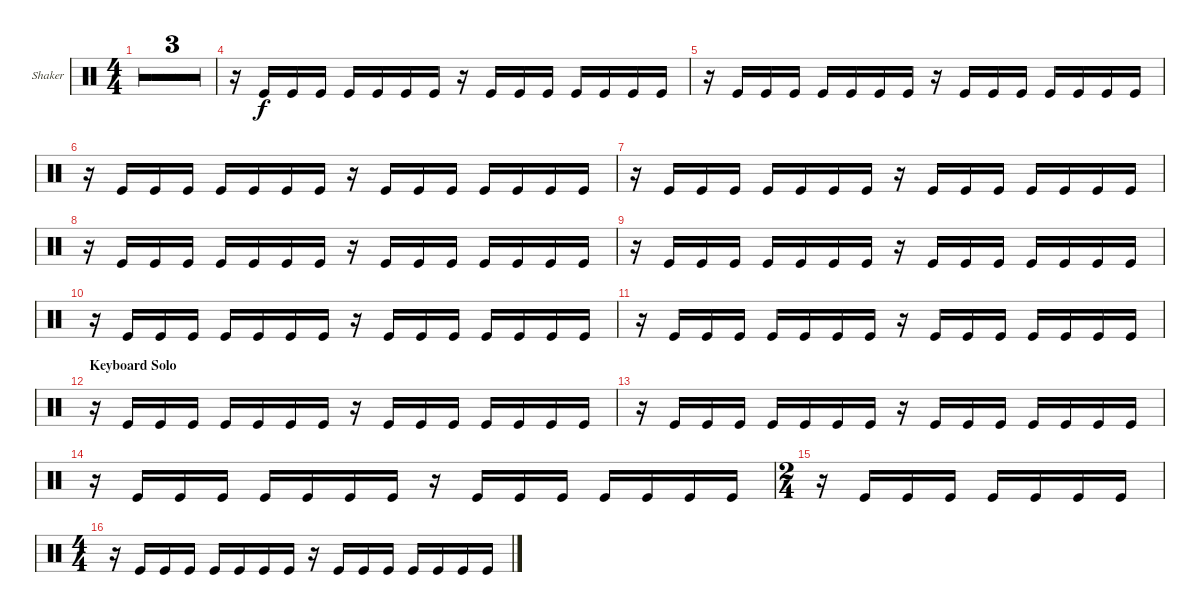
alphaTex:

\bracketExtendMode groupsimilarinstruments
\firstSystemTrackNameOrientation horizontal
\otherSystemsTrackNameOrientation horizontal
\track ("Shaker" "Shaker") {multiBarRest instrument percussion}
\staff {score}
\articulation defaults
\ts (4 4)
\tempo 90
\clef neutral
\ks c
r.16{dy f} r.16 r.16 r.16 r.16 r.16 r.16 r.16 r.16 r.16 r.16 r.16 r.16 r.16 r.16 r.16 |
r.16 r.16 r.16 r.16 r.16 r.16 r.16 r.16 r.16 r.16 r.16 r.16 r.16 r.16 r.16 r.16 |
r.16 r.16 r.16 r.16 r.16 r.16 r.16 r.16 r.16 r.16 r.16 r.16 r.16 r.16 r.16 r.16 |
r.16 "Kick (hit)".16 "Kick (hit)".16 "Kick (hit)".16 "Kick (hit)".16 "Kick (hit)".16 "Kick (hit)".16 "Kick (hit)".16 r.16 "Kick (hit)".16 "Kick (hit)".16 "Kick (hit)".16 "Kick (hit)".16 "Kick (hit)".16 "Kick (hit)".16 "Kick (hit)".16 |
r.16 "Kick (hit)".16 "Kick (hit)".16 "Kick (hit)".16 "Kick (hit)".16 "Kick (hit)".16 "Kick (hit)".16 "Kick (hit)".16 r.16 "Kick (hit)".16 "Kick (hit)".16 "Kick (hit)".16 "Kick (hit)".16 "Kick (hit)".16 "Kick (hit)".16 "Kick (hit)".16 |
r.16 "Kick (hit)".16 "Kick (hit)".16 "Kick (hit)".16 "Kick (hit)".16 "Kick (hit)".16 "Kick (hit)".16 "Kick (hit)".16 r.16 "Kick (hit)".16 "Kick (hit)".16 "Kick (hit)".16 "Kick (hit)".16 "Kick (hit)".16 "Kick (hit)".16 "Kick (hit)".16 |
r.16 "Kick (hit)".16 "Kick (hit)".16 "Kick (hit)".16 "Kick (hit)".16 "Kick (hit)".16 "Kick (hit)".16 "Kick (hit)".16 r.16 "Kick (hit)".16 "Kick (hit)".16 "Kick (hit)".16 "Kick (hit)".16 "Kick (hit)".16 "Kick (hit)".16 "Kick (hit)".16 |
r.16 "Kick (hit)".16 "Kick (hit)".16 "Kick (hit)".16 "Kick (hit)".16 "Kick (hit)".16 "Kick (hit)".16 "Kick (hit)".16 r.16 "Kick (hit)".16 "Kick (hit)".16 "Kick (hit)".16 "Kick (hit)".16 "Kick (hit)".16 "Kick (hit)".16 "Kick (hit)".16 |
r.16 "Kick (hit)".16 "Kick (hit)".16 "Kick (hit)".16 "Kick (hit)".16 "Kick (hit)".16 "Kick (hit)".16 "Kick (hit)".16 r.16 "Kick (hit)".16 "Kick (hit)".16 "Kick (hit)".16 "Kick (hit)".16 "Kick (hit)".16 "Kick (hit)".16 "Kick (hit)".16 |
r.16 "Kick (hit)".16 "Kick (hit)".16 "Kick (hit)".16 "Kick (hit)".16 "Kick (hit)".16 "Kick (hit)".16 "Kick (hit)".16 r.16 "Kick (hit)".16 "Kick (hit)".16 "Kick (hit)".16 "Kick (hit)".16 "Kick (hit)".16 "Kick (hit)".16 "Kick (hit)".16 |
r.16 "Kick (hit)".16 "Kick (hit)".16 "Kick (hit)".16 "Kick (hit)".16 "Kick (hit)".16 "Kick (hit)".16 "Kick (hit)".16 r.16 "Kick (hit)".16 "Kick (hit)".16 "Kick (hit)".16 "Kick (hit)".16 "Kick (hit)".16 "Kick (hit)".16 "Kick (hit)".16 |
\section ("" "Keyboard Solo")
r.16 "Kick (hit)".16 "Kick (hit)".16 "Kick (hit)".16 "Kick (hit)".16 "Kick (hit)".16 "Kick (hit)".16 "Kick (hit)".16 r.16 "Kick (hit)".16 "Kick (hit)".16 "Kick (hit)".16 "Kick (hit)".16 "Kick (hit)".16 "Kick (hit)".16 "Kick (hit)".16 |
r.16 "Kick (hit)".16 "Kick (hit)".16 "Kick (hit)".16 "Kick (hit)".16 "Kick (hit)".16 "Kick (hit)".16 "Kick (hit)".16 r.16 "Kick (hit)".16 "Kick (hit)".16 "Kick (hit)".16 "Kick (hit)".16 "Kick (hit)".16 "Kick (hit)".16 "Kick (hit)".16 |
r.16 "Kick (hit)".16 "Kick (hit)".16 "Kick (hit)".16 "Kick (hit)".16 "Kick (hit)".16 "Kick (hit)".16 "Kick (hit)".16 r.16 "Kick (hit)".16 "Kick (hit)".16 "Kick (hit)".16 "Kick (hit)".16 "Kick (hit)".16 "Kick (hit)".16 "Kick (hit)".16 |
\ts (2 4)
\beaming (8 2 2)
r.16 "Kick (hit)".16 "Kick (hit)".16 "Kick (hit)".16 "Kick (hit)".16 "Kick (hit)".16 "Kick (hit)".16 "Kick (hit)".16 |
\ts (4 4)
\beaming (8 2 2 2 2)
r.16 "Kick (hit)".16 "Kick (hit)".16 "Kick (hit)".16 "Kick (hit)".16 "Kick (hit)".16 "Kick (hit)".16 "Kick (hit)".16 r.16 "Kick (hit)".16 "Kick (hit)".16 "Kick (hit)".16 "Kick (hit)".16 "Kick (hit)".16 "Kick (hit)".16 "Kick (hit)".16
